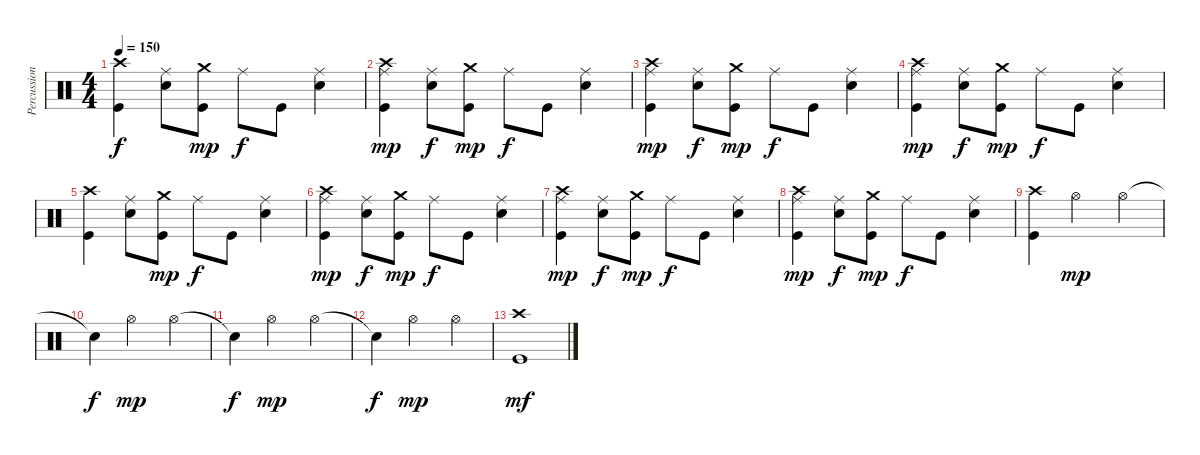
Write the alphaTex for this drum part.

\track ("Percussions" "Percussion") {instrument percussion}
\staff {score}
\articulation defaults
\ts (4 4)
\tempo 150
\clef neutral
\ks c
("Kick (hit)" "Crash high (hit)").4{dy f} ("Electric Snare (hit)" "Ride (middle)").8 ("Kick (hit)" "Crash medium (hit)").8{dy mp} "Ride (middle)".8{dy f} "Kick (hit)".8 ("Electric Snare (hit)" "Ride (middle)").4 |
("Kick (hit)" "Ride (middle)" "Crash high (hit)").4{dy mp} ("Electric Snare (hit)" "Ride (middle)").8{dy f} ("Kick (hit)" "Crash medium (hit)").8{dy mp} "Ride (middle)".8{dy f} "Kick (hit)".8 ("Electric Snare (hit)" "Ride (middle)").4 |
("Kick (hit)" "Ride (middle)" "Crash high (hit)").4{dy mp} ("Electric Snare (hit)" "Ride (middle)").8{dy f} ("Kick (hit)" "Crash medium (hit)").8{dy mp} "Ride (middle)".8{dy f} "Kick (hit)".8 ("Electric Snare (hit)" "Ride (middle)").4 |
("Kick (hit)" "Ride (middle)" "Crash high (hit)").4{dy mp} ("Electric Snare (hit)" "Ride (middle)").8{dy f} ("Kick (hit)" "Crash medium (hit)").8{dy mp} "Ride (middle)".8{dy f} "Kick (hit)".8 ("Electric Snare (hit)" "Ride (middle)").4 |
("Kick (hit)" "Crash high (hit)").4 ("Electric Snare (hit)" "Ride (middle)").8 ("Kick (hit)" "Crash medium (hit)").8{dy mp} "Ride (middle)".8{dy f} "Kick (hit)".8 ("Electric Snare (hit)" "Ride (middle)").4 |
("Kick (hit)" "Ride (middle)" "Crash high (hit)").4{dy mp} ("Electric Snare (hit)" "Ride (middle)").8{dy f} ("Kick (hit)" "Crash medium (hit)").8{dy mp} "Ride (middle)".8{dy f} "Kick (hit)".8 ("Electric Snare (hit)" "Ride (middle)").4 |
("Kick (hit)" "Ride (middle)" "Crash high (hit)").4{dy mp} ("Electric Snare (hit)" "Ride (middle)").8{dy f} ("Kick (hit)" "Crash medium (hit)").8{dy mp} "Ride (middle)".8{dy f} "Kick (hit)".8 ("Electric Snare (hit)" "Ride (middle)").4 |
("Kick (hit)" "Ride (middle)" "Crash high (hit)").4{dy mp} ("Electric Snare (hit)" "Ride (middle)").8{dy f} ("Kick (hit)" "Crash medium (hit)").8{dy mp} "Ride (middle)".8{dy f} "Kick (hit)".8 ("Electric Snare (hit)" "Ride (middle)").4 |
("Kick (hit)" "Crash high (hit)").4 "Hi-Hat (open)".2{dy mp} "Hi-Hat (open)".4 |
"Snare (hit)"{t}.4{dy f} "Hi-Hat (open)".2{dy mp} "Hi-Hat (open)".4 |
"Snare (hit)"{t}.4{dy f} "Hi-Hat (open)".2{dy mp} "Hi-Hat (open)".4 |
"Snare (hit)"{t}.4{dy f} "Hi-Hat (open)".2{dy mp} "Hi-Hat (open)".4 |
("Kick (hit)" "Crash high (hit)").1{dy mf}
